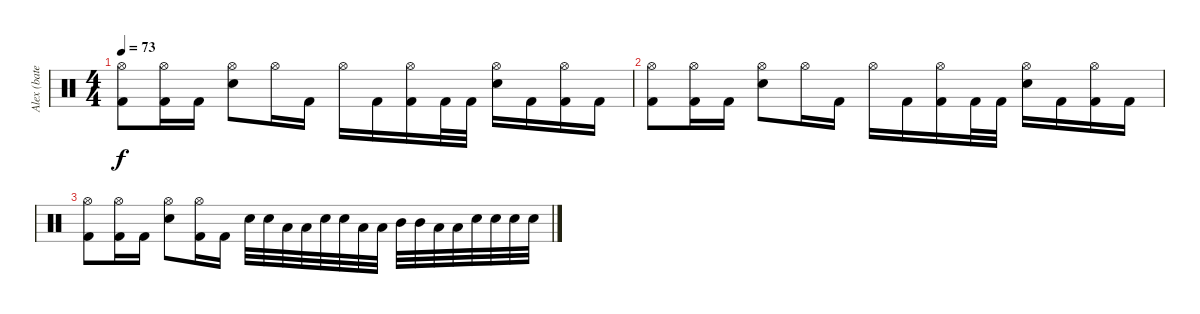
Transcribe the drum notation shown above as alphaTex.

\track ("Alex (bateria)" "Alex (bate") {instrument percussion}
\staff {score}
\articulation defaults
\ts (4 4)
\tempo 73
\clef neutral
\ks c
("Hi-Hat (open)" "Kick (hit) 2").8{dy f} ("Hi-Hat (open)" "Kick (hit) 2").16 "Kick (hit) 2".16 ("Hi-Hat (open)" "Electric Snare (hit)").8 "Hi-Hat (open)".16 "Kick (hit) 2".16 "Hi-Hat (open)".16 "Kick (hit) 2".16 ("Hi-Hat (open)" "Kick (hit) 2").16 "Kick (hit) 2".32 "Kick (hit) 2".32 ("Hi-Hat (open)" "Electric Snare (hit)").16 "Kick (hit) 2".16 ("Hi-Hat (open)" "Kick (hit) 2").16 "Kick (hit) 2".16 |
("Hi-Hat (open)" "Kick (hit) 2").8 ("Hi-Hat (open)" "Kick (hit) 2").16 "Kick (hit) 2".16 ("Hi-Hat (open)" "Electric Snare (hit)").8 "Hi-Hat (open)".16 "Kick (hit) 2".16 "Hi-Hat (open)".16 "Kick (hit) 2".16 ("Hi-Hat (open)" "Kick (hit) 2").16 "Kick (hit) 2".32 "Kick (hit) 2".32 ("Hi-Hat (open)" "Electric Snare (hit)").16 "Kick (hit) 2".16 ("Hi-Hat (open)" "Kick (hit) 2").16 "Kick (hit) 2".16 |
("Hi-Hat (open)" "Kick (hit) 2").8 ("Hi-Hat (open)" "Kick (hit) 2").16 "Kick (hit) 2".16 ("Hi-Hat (open)" "Electric Snare (hit)").8 ("Hi-Hat (open)" "Kick (hit) 2").16 "Kick (hit) 2".16 "Electric Snare (hit)".32 "Electric Snare (hit)".32 "Low Tom (hit)".32 "Low Tom (hit)".32 "Electric Snare (hit)".32 "Electric Snare (hit)".32 "Low Tom (hit)".32 "Low Tom (hit)".32 "Mid Tom (hit)".32 "Mid Tom (hit)".32 "Low Tom (hit)".32 "Low Tom (hit)".32 "Electric Snare (hit)".32 "Electric Snare (hit)".32 "Electric Snare (hit)".32 "Electric Snare (hit)".32
